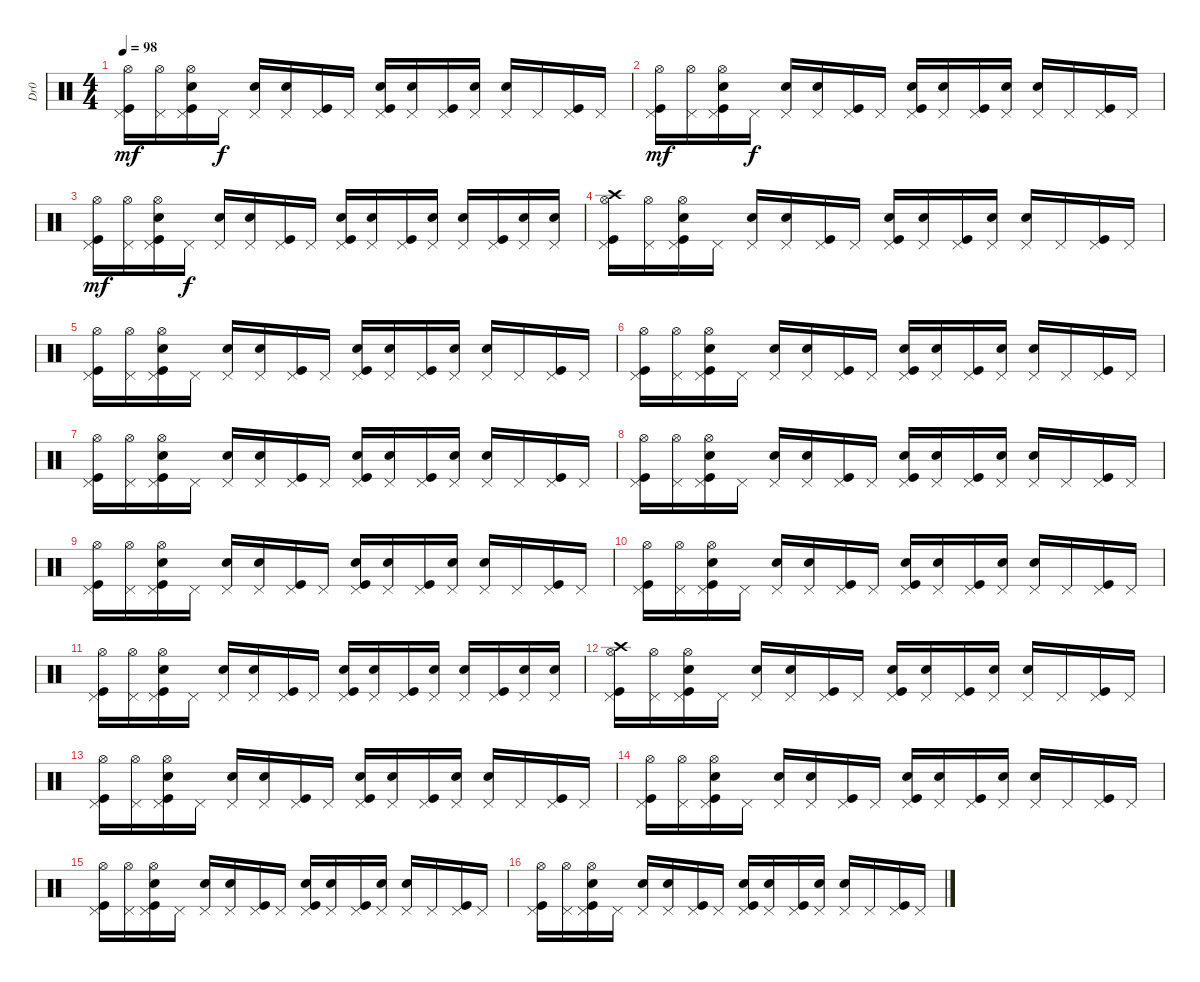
\track ("Dr0" "Dr0") {instrument percussion}
\staff {score}
\articulation defaults
\ts (4 4)
\tempo 98
\clef neutral
\ks c
("Kick (hit)" "Pedal Hi-Hat (hit)" "Hi-Hat (open)").16{dy mf} ("Pedal Hi-Hat (hit)" "Hi-Hat (open)").16 ("Kick (hit)" "Pedal Hi-Hat (hit)" "Hand Clap (hit)" "Hi-Hat (open)").16 "Pedal Hi-Hat (hit)".16{dy f} ("Pedal Hi-Hat (hit)" "Snare (hit) 2").16 ("Pedal Hi-Hat (hit)" "Hand Clap (hit)").16 ("Kick (hit)" "Pedal Hi-Hat (hit)").16 "Pedal Hi-Hat (hit)".16 ("Kick (hit)" "Pedal Hi-Hat (hit)" "Hand Clap (hit)").16 ("Pedal Hi-Hat (hit)" "Snare (hit) 2").16 ("Kick (hit)" "Pedal Hi-Hat (hit)").16 ("Pedal Hi-Hat (hit)" "Hand Clap (hit)").16 ("Pedal Hi-Hat (hit)" "Snare (hit) 2").16 "Pedal Hi-Hat (hit)".16 ("Kick (hit)" "Pedal Hi-Hat (hit)").16 "Pedal Hi-Hat (hit)".16 |
("Kick (hit)" "Pedal Hi-Hat (hit)" "Hi-Hat (open)").16{dy mf} ("Pedal Hi-Hat (hit)" "Hi-Hat (open)").16 ("Kick (hit)" "Pedal Hi-Hat (hit)" "Hand Clap (hit)" "Hi-Hat (open)").16 "Pedal Hi-Hat (hit)".16{dy f} ("Pedal Hi-Hat (hit)" "Snare (hit) 2").16 ("Pedal Hi-Hat (hit)" "Hand Clap (hit)").16 ("Kick (hit)" "Pedal Hi-Hat (hit)").16 "Pedal Hi-Hat (hit)".16 ("Kick (hit)" "Pedal Hi-Hat (hit)" "Hand Clap (hit)").16 ("Pedal Hi-Hat (hit)" "Snare (hit) 2").16 ("Kick (hit)" "Pedal Hi-Hat (hit)").16 ("Pedal Hi-Hat (hit)" "Hand Clap (hit)").16 ("Pedal Hi-Hat (hit)" "Snare (hit) 2").16 "Pedal Hi-Hat (hit)".16 ("Kick (hit)" "Pedal Hi-Hat (hit)").16 "Pedal Hi-Hat (hit)".16 |
("Kick (hit)" "Pedal Hi-Hat (hit)" "Hi-Hat (open)").16{dy mf} ("Pedal Hi-Hat (hit)" "Hi-Hat (open)").16 ("Kick (hit)" "Pedal Hi-Hat (hit)" "Hand Clap (hit)" "Hi-Hat (open)").16 "Pedal Hi-Hat (hit)".16{dy f} ("Pedal Hi-Hat (hit)" "Snare (hit) 2").16 ("Pedal Hi-Hat (hit)" "Hand Clap (hit)").16 ("Kick (hit)" "Pedal Hi-Hat (hit)").16 "Pedal Hi-Hat (hit)".16 ("Kick (hit)" "Pedal Hi-Hat (hit)" "Hand Clap (hit)").16 ("Pedal Hi-Hat (hit)" "Snare (hit) 2").16 ("Kick (hit)" "Pedal Hi-Hat (hit)").16 ("Pedal Hi-Hat (hit)" "Hand Clap (hit)").16 ("Pedal Hi-Hat (hit)" "Snare (hit) 2").16 ("Kick (hit)" "Pedal Hi-Hat (hit)").16 ("Pedal Hi-Hat (hit)" "Snare (hit) 2").16 ("Pedal Hi-Hat (hit)" "Snare (hit) 2").16 |
("Kick (hit)" "Pedal Hi-Hat (hit)" "Crash high (hit)" "Hi-Hat (open)").16 ("Pedal Hi-Hat (hit)" "Hi-Hat (open)").16 ("Kick (hit)" "Pedal Hi-Hat (hit)" "Hand Clap (hit)" "Hi-Hat (open)").16 "Pedal Hi-Hat (hit)".16 ("Pedal Hi-Hat (hit)" "Snare (hit) 2").16 ("Pedal Hi-Hat (hit)" "Hand Clap (hit)").16 ("Kick (hit)" "Pedal Hi-Hat (hit)").16 "Pedal Hi-Hat (hit)".16 ("Kick (hit)" "Pedal Hi-Hat (hit)" "Hand Clap (hit)").16 ("Pedal Hi-Hat (hit)" "Snare (hit) 2").16 ("Kick (hit)" "Pedal Hi-Hat (hit)").16 ("Pedal Hi-Hat (hit)" "Hand Clap (hit)").16 ("Pedal Hi-Hat (hit)" "Snare (hit) 2").16 "Pedal Hi-Hat (hit)".16 ("Kick (hit)" "Pedal Hi-Hat (hit)").16 "Pedal Hi-Hat (hit)".16 |
("Kick (hit)" "Pedal Hi-Hat (hit)" "Hi-Hat (open)").16 ("Pedal Hi-Hat (hit)" "Hi-Hat (open)").16 ("Kick (hit)" "Pedal Hi-Hat (hit)" "Hand Clap (hit)" "Hi-Hat (open)").16 "Pedal Hi-Hat (hit)".16 ("Pedal Hi-Hat (hit)" "Snare (hit) 2").16 ("Pedal Hi-Hat (hit)" "Hand Clap (hit)").16 ("Kick (hit)" "Pedal Hi-Hat (hit)").16 "Pedal Hi-Hat (hit)".16 ("Kick (hit)" "Pedal Hi-Hat (hit)" "Hand Clap (hit)").16 ("Pedal Hi-Hat (hit)" "Snare (hit) 2").16 ("Kick (hit)" "Pedal Hi-Hat (hit)").16 ("Pedal Hi-Hat (hit)" "Hand Clap (hit)").16 ("Pedal Hi-Hat (hit)" "Snare (hit) 2").16 "Pedal Hi-Hat (hit)".16 ("Kick (hit)" "Pedal Hi-Hat (hit)").16 "Pedal Hi-Hat (hit)".16 |
("Kick (hit)" "Pedal Hi-Hat (hit)" "Hi-Hat (open)").16 ("Pedal Hi-Hat (hit)" "Hi-Hat (open)").16 ("Kick (hit)" "Pedal Hi-Hat (hit)" "Hand Clap (hit)" "Hi-Hat (open)").16 "Pedal Hi-Hat (hit)".16 ("Pedal Hi-Hat (hit)" "Snare (hit) 2").16 ("Pedal Hi-Hat (hit)" "Hand Clap (hit)").16 ("Kick (hit)" "Pedal Hi-Hat (hit)").16 "Pedal Hi-Hat (hit)".16 ("Kick (hit)" "Pedal Hi-Hat (hit)" "Hand Clap (hit)").16 ("Pedal Hi-Hat (hit)" "Snare (hit) 2").16 ("Kick (hit)" "Pedal Hi-Hat (hit)").16 ("Pedal Hi-Hat (hit)" "Hand Clap (hit)").16 ("Pedal Hi-Hat (hit)" "Snare (hit) 2").16 "Pedal Hi-Hat (hit)".16 ("Kick (hit)" "Pedal Hi-Hat (hit)").16 "Pedal Hi-Hat (hit)".16 |
("Kick (hit)" "Pedal Hi-Hat (hit)" "Hi-Hat (open)").16 ("Pedal Hi-Hat (hit)" "Hi-Hat (open)").16 ("Kick (hit)" "Pedal Hi-Hat (hit)" "Hand Clap (hit)" "Hi-Hat (open)").16 "Pedal Hi-Hat (hit)".16 ("Pedal Hi-Hat (hit)" "Snare (hit) 2").16 ("Pedal Hi-Hat (hit)" "Hand Clap (hit)").16 ("Kick (hit)" "Pedal Hi-Hat (hit)").16 "Pedal Hi-Hat (hit)".16 ("Kick (hit)" "Pedal Hi-Hat (hit)" "Hand Clap (hit)").16 ("Pedal Hi-Hat (hit)" "Snare (hit) 2").16 ("Kick (hit)" "Pedal Hi-Hat (hit)").16 ("Pedal Hi-Hat (hit)" "Hand Clap (hit)").16 ("Pedal Hi-Hat (hit)" "Snare (hit) 2").16 "Pedal Hi-Hat (hit)".16 ("Kick (hit)" "Pedal Hi-Hat (hit)").16 "Pedal Hi-Hat (hit)".16 |
("Kick (hit)" "Pedal Hi-Hat (hit)" "Hi-Hat (open)").16 ("Pedal Hi-Hat (hit)" "Hi-Hat (open)").16 ("Kick (hit)" "Pedal Hi-Hat (hit)" "Hand Clap (hit)" "Hi-Hat (open)").16 "Pedal Hi-Hat (hit)".16 ("Pedal Hi-Hat (hit)" "Snare (hit) 2").16 ("Pedal Hi-Hat (hit)" "Hand Clap (hit)").16 ("Kick (hit)" "Pedal Hi-Hat (hit)").16 "Pedal Hi-Hat (hit)".16 ("Kick (hit)" "Pedal Hi-Hat (hit)" "Hand Clap (hit)").16 ("Pedal Hi-Hat (hit)" "Snare (hit) 2").16 ("Kick (hit)" "Pedal Hi-Hat (hit)").16 ("Pedal Hi-Hat (hit)" "Hand Clap (hit)").16 ("Pedal Hi-Hat (hit)" "Snare (hit) 2").16 "Pedal Hi-Hat (hit)".16 ("Kick (hit)" "Pedal Hi-Hat (hit)").16 "Pedal Hi-Hat (hit)".16 |
("Kick (hit)" "Pedal Hi-Hat (hit)" "Hi-Hat (open)").16 ("Pedal Hi-Hat (hit)" "Hi-Hat (open)").16 ("Kick (hit)" "Pedal Hi-Hat (hit)" "Hand Clap (hit)" "Hi-Hat (open)").16 "Pedal Hi-Hat (hit)".16 ("Pedal Hi-Hat (hit)" "Snare (hit) 2").16 ("Pedal Hi-Hat (hit)" "Hand Clap (hit)").16 ("Kick (hit)" "Pedal Hi-Hat (hit)").16 "Pedal Hi-Hat (hit)".16 ("Kick (hit)" "Pedal Hi-Hat (hit)" "Hand Clap (hit)").16 ("Pedal Hi-Hat (hit)" "Snare (hit) 2").16 ("Kick (hit)" "Pedal Hi-Hat (hit)").16 ("Pedal Hi-Hat (hit)" "Hand Clap (hit)").16 ("Pedal Hi-Hat (hit)" "Snare (hit) 2").16 "Pedal Hi-Hat (hit)".16 ("Kick (hit)" "Pedal Hi-Hat (hit)").16 "Pedal Hi-Hat (hit)".16 |
("Kick (hit)" "Pedal Hi-Hat (hit)" "Hi-Hat (open)").16 ("Pedal Hi-Hat (hit)" "Hi-Hat (open)").16 ("Kick (hit)" "Pedal Hi-Hat (hit)" "Hand Clap (hit)" "Hi-Hat (open)").16 "Pedal Hi-Hat (hit)".16 ("Pedal Hi-Hat (hit)" "Snare (hit) 2").16 ("Pedal Hi-Hat (hit)" "Hand Clap (hit)").16 ("Kick (hit)" "Pedal Hi-Hat (hit)").16 "Pedal Hi-Hat (hit)".16 ("Kick (hit)" "Pedal Hi-Hat (hit)" "Hand Clap (hit)").16 ("Pedal Hi-Hat (hit)" "Snare (hit) 2").16 ("Kick (hit)" "Pedal Hi-Hat (hit)").16 ("Pedal Hi-Hat (hit)" "Hand Clap (hit)").16 ("Pedal Hi-Hat (hit)" "Snare (hit) 2").16 "Pedal Hi-Hat (hit)".16 ("Kick (hit)" "Pedal Hi-Hat (hit)").16 "Pedal Hi-Hat (hit)".16 |
("Kick (hit)" "Pedal Hi-Hat (hit)" "Hi-Hat (open)").16 ("Pedal Hi-Hat (hit)" "Hi-Hat (open)").16 ("Kick (hit)" "Pedal Hi-Hat (hit)" "Hand Clap (hit)" "Hi-Hat (open)").16 "Pedal Hi-Hat (hit)".16 ("Pedal Hi-Hat (hit)" "Snare (hit) 2").16 ("Pedal Hi-Hat (hit)" "Hand Clap (hit)").16 ("Kick (hit)" "Pedal Hi-Hat (hit)").16 "Pedal Hi-Hat (hit)".16 ("Kick (hit)" "Pedal Hi-Hat (hit)" "Hand Clap (hit)").16 ("Pedal Hi-Hat (hit)" "Snare (hit) 2").16 ("Kick (hit)" "Pedal Hi-Hat (hit)").16 ("Pedal Hi-Hat (hit)" "Hand Clap (hit)").16 ("Pedal Hi-Hat (hit)" "Snare (hit) 2").16 ("Kick (hit)" "Pedal Hi-Hat (hit)").16 ("Pedal Hi-Hat (hit)" "Snare (hit) 2").16 ("Pedal Hi-Hat (hit)" "Snare (hit) 2").16 |
("Kick (hit)" "Pedal Hi-Hat (hit)" "Crash high (hit)" "Hi-Hat (open)").16 ("Pedal Hi-Hat (hit)" "Hi-Hat (open)").16 ("Kick (hit)" "Pedal Hi-Hat (hit)" "Hand Clap (hit)" "Hi-Hat (open)").16 "Pedal Hi-Hat (hit)".16 ("Pedal Hi-Hat (hit)" "Snare (hit) 2").16 ("Pedal Hi-Hat (hit)" "Hand Clap (hit)").16 ("Kick (hit)" "Pedal Hi-Hat (hit)").16 "Pedal Hi-Hat (hit)".16 ("Kick (hit)" "Pedal Hi-Hat (hit)" "Hand Clap (hit)").16 ("Pedal Hi-Hat (hit)" "Snare (hit) 2").16 ("Kick (hit)" "Pedal Hi-Hat (hit)").16 ("Pedal Hi-Hat (hit)" "Hand Clap (hit)").16 ("Pedal Hi-Hat (hit)" "Snare (hit) 2").16 "Pedal Hi-Hat (hit)".16 ("Kick (hit)" "Pedal Hi-Hat (hit)").16 "Pedal Hi-Hat (hit)".16 |
("Kick (hit)" "Pedal Hi-Hat (hit)" "Hi-Hat (open)").16 ("Pedal Hi-Hat (hit)" "Hi-Hat (open)").16 ("Kick (hit)" "Pedal Hi-Hat (hit)" "Hand Clap (hit)" "Hi-Hat (open)").16 "Pedal Hi-Hat (hit)".16 ("Pedal Hi-Hat (hit)" "Snare (hit) 2").16 ("Pedal Hi-Hat (hit)" "Hand Clap (hit)").16 ("Kick (hit)" "Pedal Hi-Hat (hit)").16 "Pedal Hi-Hat (hit)".16 ("Kick (hit)" "Pedal Hi-Hat (hit)" "Hand Clap (hit)").16 ("Pedal Hi-Hat (hit)" "Snare (hit) 2").16 ("Kick (hit)" "Pedal Hi-Hat (hit)").16 ("Pedal Hi-Hat (hit)" "Hand Clap (hit)").16 ("Pedal Hi-Hat (hit)" "Snare (hit) 2").16 "Pedal Hi-Hat (hit)".16 ("Kick (hit)" "Pedal Hi-Hat (hit)").16 "Pedal Hi-Hat (hit)".16 |
("Kick (hit)" "Pedal Hi-Hat (hit)" "Hi-Hat (open)").16 ("Pedal Hi-Hat (hit)" "Hi-Hat (open)").16 ("Kick (hit)" "Pedal Hi-Hat (hit)" "Hand Clap (hit)" "Hi-Hat (open)").16 "Pedal Hi-Hat (hit)".16 ("Pedal Hi-Hat (hit)" "Snare (hit) 2").16 ("Pedal Hi-Hat (hit)" "Hand Clap (hit)").16 ("Kick (hit)" "Pedal Hi-Hat (hit)").16 "Pedal Hi-Hat (hit)".16 ("Kick (hit)" "Pedal Hi-Hat (hit)" "Hand Clap (hit)").16 ("Pedal Hi-Hat (hit)" "Snare (hit) 2").16 ("Kick (hit)" "Pedal Hi-Hat (hit)").16 ("Pedal Hi-Hat (hit)" "Hand Clap (hit)").16 ("Pedal Hi-Hat (hit)" "Snare (hit) 2").16 "Pedal Hi-Hat (hit)".16 ("Kick (hit)" "Pedal Hi-Hat (hit)").16 "Pedal Hi-Hat (hit)".16 |
("Kick (hit)" "Pedal Hi-Hat (hit)" "Hi-Hat (open)").16 ("Pedal Hi-Hat (hit)" "Hi-Hat (open)").16 ("Kick (hit)" "Pedal Hi-Hat (hit)" "Hand Clap (hit)" "Hi-Hat (open)").16 "Pedal Hi-Hat (hit)".16 ("Pedal Hi-Hat (hit)" "Snare (hit) 2").16 ("Pedal Hi-Hat (hit)" "Hand Clap (hit)").16 ("Kick (hit)" "Pedal Hi-Hat (hit)").16 "Pedal Hi-Hat (hit)".16 ("Kick (hit)" "Pedal Hi-Hat (hit)" "Hand Clap (hit)").16 ("Pedal Hi-Hat (hit)" "Snare (hit) 2").16 ("Kick (hit)" "Pedal Hi-Hat (hit)").16 ("Pedal Hi-Hat (hit)" "Hand Clap (hit)").16 ("Pedal Hi-Hat (hit)" "Snare (hit) 2").16 "Pedal Hi-Hat (hit)".16 ("Kick (hit)" "Pedal Hi-Hat (hit)").16 "Pedal Hi-Hat (hit)".16 |
("Kick (hit)" "Pedal Hi-Hat (hit)" "Hi-Hat (open)").16 ("Pedal Hi-Hat (hit)" "Hi-Hat (open)").16 ("Kick (hit)" "Pedal Hi-Hat (hit)" "Hand Clap (hit)" "Hi-Hat (open)").16 "Pedal Hi-Hat (hit)".16 ("Pedal Hi-Hat (hit)" "Snare (hit) 2").16 ("Pedal Hi-Hat (hit)" "Hand Clap (hit)").16 ("Kick (hit)" "Pedal Hi-Hat (hit)").16 "Pedal Hi-Hat (hit)".16 ("Kick (hit)" "Pedal Hi-Hat (hit)" "Hand Clap (hit)").16 ("Pedal Hi-Hat (hit)" "Snare (hit) 2").16 ("Kick (hit)" "Pedal Hi-Hat (hit)").16 ("Pedal Hi-Hat (hit)" "Hand Clap (hit)").16 ("Pedal Hi-Hat (hit)" "Snare (hit) 2").16 "Pedal Hi-Hat (hit)".16 ("Kick (hit)" "Pedal Hi-Hat (hit)").16 "Pedal Hi-Hat (hit)".16
